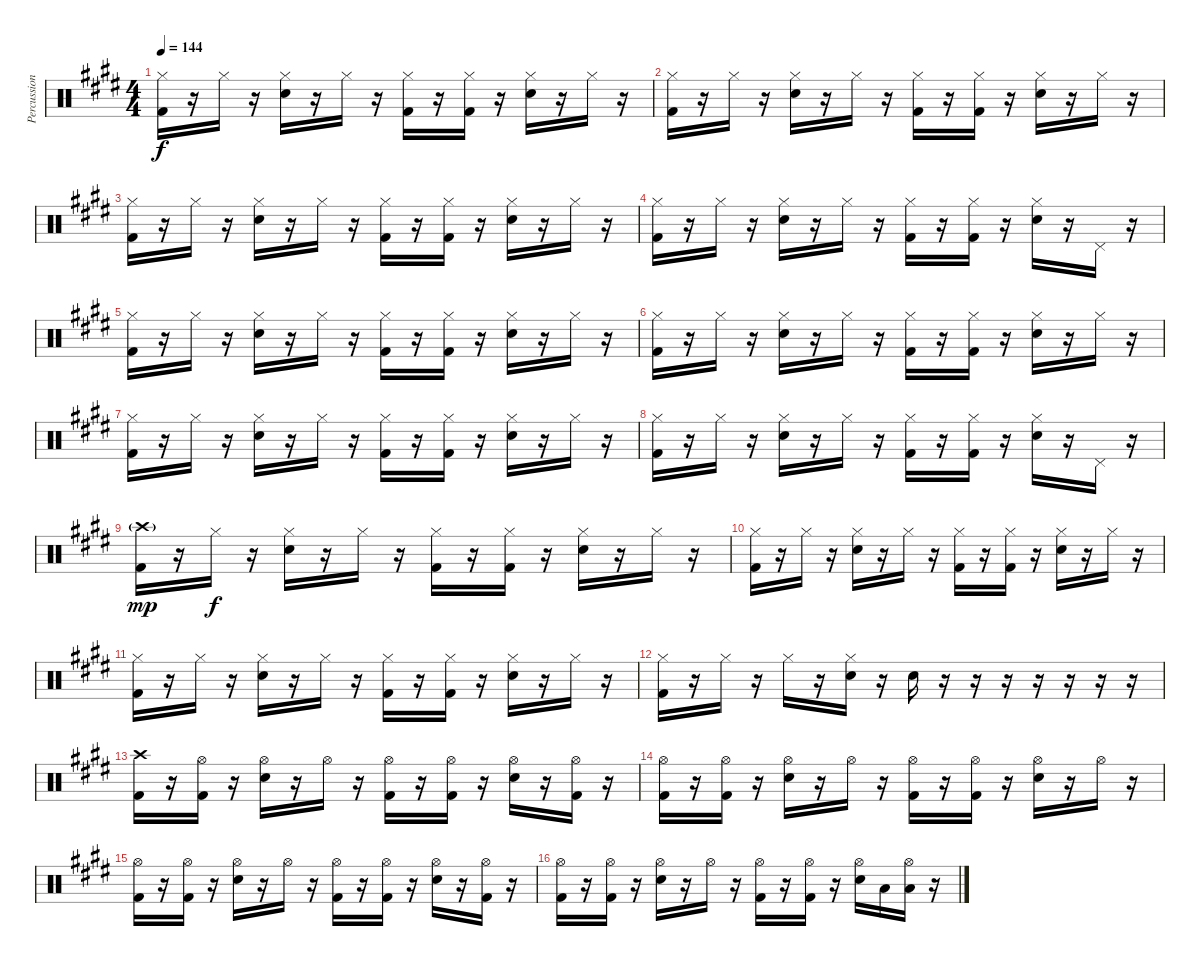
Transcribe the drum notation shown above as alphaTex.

\track ("Percussion" "Percussion") {instrument percussion}
\staff {score}
\articulation defaults
\ts (4 4)
\tempo 144
\clef neutral
\ks e
("Hi-Hat (closed)" "Kick (hit) 2").16{dy f} r.16 "Hi-Hat (closed)".16 r.16 ("Hi-Hat (closed)" "Snare (hit) 2").16 r.16 "Hi-Hat (closed)".16 r.16 ("Hi-Hat (closed)" "Kick (hit) 2").16 r.16 ("Hi-Hat (closed)" "Kick (hit) 2").16 r.16 ("Hi-Hat (closed)" "Snare (hit) 2").16 r.16 "Hi-Hat (closed)".16 r.16 |
("Hi-Hat (closed)" "Kick (hit) 2").16 r.16 "Hi-Hat (closed)".16 r.16 ("Hi-Hat (closed)" "Snare (hit) 2").16 r.16 "Hi-Hat (closed)".16 r.16 ("Hi-Hat (closed)" "Kick (hit) 2").16 r.16 ("Hi-Hat (closed)" "Kick (hit) 2").16 r.16 ("Hi-Hat (closed)" "Snare (hit) 2").16 r.16 "Hi-Hat (closed)".16 r.16 |
("Hi-Hat (closed)" "Kick (hit) 2").16 r.16 "Hi-Hat (closed)".16 r.16 ("Hi-Hat (closed)" "Snare (hit) 2").16 r.16 "Hi-Hat (closed)".16 r.16 ("Hi-Hat (closed)" "Kick (hit) 2").16 r.16 ("Hi-Hat (closed)" "Kick (hit) 2").16 r.16 ("Hi-Hat (closed)" "Snare (hit) 2").16 r.16 "Hi-Hat (closed)".16 r.16 |
("Hi-Hat (closed)" "Kick (hit) 2").16 r.16 "Hi-Hat (closed)".16 r.16 ("Hi-Hat (closed)" "Snare (hit) 2").16 r.16 "Hi-Hat (closed)".16 r.16 ("Hi-Hat (closed)" "Kick (hit) 2").16 r.16 ("Hi-Hat (closed)" "Kick (hit) 2").16 r.16 ("Hi-Hat (closed)" "Snare (hit) 2").16 r.16 "Pedal Hi-Hat (hit)".16 r.16 |
("Hi-Hat (closed)" "Kick (hit) 2").16 r.16 "Hi-Hat (closed)".16 r.16 ("Hi-Hat (closed)" "Snare (hit) 2").16 r.16 "Hi-Hat (closed)".16 r.16 ("Hi-Hat (closed)" "Kick (hit) 2").16 r.16 ("Hi-Hat (closed)" "Kick (hit) 2").16 r.16 ("Hi-Hat (closed)" "Snare (hit) 2").16 r.16 "Hi-Hat (closed)".16 r.16 |
("Hi-Hat (closed)" "Kick (hit) 2").16 r.16 "Hi-Hat (closed)".16 r.16 ("Hi-Hat (closed)" "Snare (hit) 2").16 r.16 "Hi-Hat (closed)".16 r.16 ("Hi-Hat (closed)" "Kick (hit) 2").16 r.16 ("Hi-Hat (closed)" "Kick (hit) 2").16 r.16 ("Hi-Hat (closed)" "Snare (hit) 2").16 r.16 "Hi-Hat (closed)".16 r.16 |
("Hi-Hat (closed)" "Kick (hit) 2").16 r.16 "Hi-Hat (closed)".16 r.16 ("Hi-Hat (closed)" "Snare (hit) 2").16 r.16 "Hi-Hat (closed)".16 r.16 ("Hi-Hat (closed)" "Kick (hit) 2").16 r.16 ("Hi-Hat (closed)" "Kick (hit) 2").16 r.16 ("Hi-Hat (closed)" "Snare (hit) 2").16 r.16 "Hi-Hat (closed)".16 r.16 |
("Hi-Hat (closed)" "Kick (hit) 2").16 r.16 "Hi-Hat (closed)".16 r.16 ("Hi-Hat (closed)" "Snare (hit) 2").16 r.16 "Hi-Hat (closed)".16 r.16 ("Hi-Hat (closed)" "Kick (hit) 2").16 r.16 ("Hi-Hat (closed)" "Kick (hit) 2").16 r.16 ("Hi-Hat (closed)" "Snare (hit) 2").16 r.16 "Pedal Hi-Hat (hit)".16 r.16 |
("Crash high (hit)"{g} "Kick (hit) 2").16{dy mp} r.16 "Hi-Hat (closed)".16{dy f} r.16 ("Hi-Hat (closed)" "Snare (hit) 2").16 r.16 "Hi-Hat (closed)".16 r.16 ("Hi-Hat (closed)" "Kick (hit) 2").16 r.16 ("Hi-Hat (closed)" "Kick (hit) 2").16 r.16 ("Hi-Hat (closed)" "Snare (hit) 2").16 r.16 "Hi-Hat (closed)".16 r.16 |
("Hi-Hat (closed)" "Kick (hit) 2").16 r.16 "Hi-Hat (closed)".16 r.16 ("Hi-Hat (closed)" "Snare (hit) 2").16 r.16 "Hi-Hat (closed)".16 r.16 ("Hi-Hat (closed)" "Kick (hit) 2").16 r.16 ("Hi-Hat (closed)" "Kick (hit) 2").16 r.16 ("Hi-Hat (closed)" "Snare (hit) 2").16 r.16 "Hi-Hat (closed)".16 r.16 |
("Hi-Hat (closed)" "Kick (hit) 2").16 r.16 "Hi-Hat (closed)".16 r.16 ("Hi-Hat (closed)" "Snare (hit) 2").16 r.16 "Hi-Hat (closed)".16 r.16 ("Hi-Hat (closed)" "Kick (hit) 2").16 r.16 ("Hi-Hat (closed)" "Kick (hit) 2").16 r.16 ("Hi-Hat (closed)" "Snare (hit) 2").16 r.16 "Hi-Hat (closed)".16 r.16 |
("Hi-Hat (closed)" "Kick (hit) 2").16 r.16 "Hi-Hat (closed)".16 r.16 "Hi-Hat (closed)".16 r.16 ("Hi-Hat (closed)" "Snare (hit) 2").16 r.16 "Snare (hit) 2".16 r.16 r.16 r.16 r.16 r.16 r.16 r.16 |
("Crash high (hit)" "Kick (hit) 2").16 r.16 ("Hi-Hat (open)" "Kick (hit) 2").16 r.16 ("Hi-Hat (open)" "Snare (hit) 2").16 r.16 "Hi-Hat (open)".16 r.16 ("Hi-Hat (open)" "Kick (hit) 2").16 r.16 ("Hi-Hat (open)" "Kick (hit) 2").16 r.16 ("Hi-Hat (open)" "Snare (hit) 2").16 r.16 ("Hi-Hat (open)" "Kick (hit) 2").16 r.16 |
("Hi-Hat (open)" "Kick (hit) 2").16 r.16 ("Hi-Hat (open)" "Kick (hit) 2").16 r.16 ("Hi-Hat (open)" "Snare (hit) 2").16 r.16 "Hi-Hat (open)".16 r.16 ("Hi-Hat (open)" "Kick (hit) 2").16 r.16 ("Hi-Hat (open)" "Kick (hit) 2").16 r.16 ("Hi-Hat (open)" "Snare (hit) 2").16 r.16 "Hi-Hat (open)".16 r.16 |
("Hi-Hat (open)" "Kick (hit) 2").16 r.16 ("Hi-Hat (open)" "Kick (hit) 2").16 r.16 ("Hi-Hat (open)" "Snare (hit) 2").16 r.16 "Hi-Hat (open)".16 r.16 ("Hi-Hat (open)" "Kick (hit) 2").16 r.16 ("Hi-Hat (open)" "Kick (hit) 2").16 r.16 ("Hi-Hat (open)" "Snare (hit) 2").16 r.16 ("Hi-Hat (open)" "Kick (hit) 2").16 r.16 |
("Hi-Hat (open)" "Kick (hit) 2").16 r.16 ("Hi-Hat (open)" "Kick (hit) 2").16 r.16 ("Hi-Hat (open)" "Snare (hit) 2").16 r.16 "Hi-Hat (open)".16 r.16 ("Hi-Hat (open)" "Kick (hit) 2").16 r.16 ("Hi-Hat (open)" "Kick (hit) 2").16 r.16 ("Hi-Hat (open)" "Snare (hit) 2").16 "Low Tom (hit)".16 ("Hi-Hat (open)" "Low Tom (hit)").16 r.16
